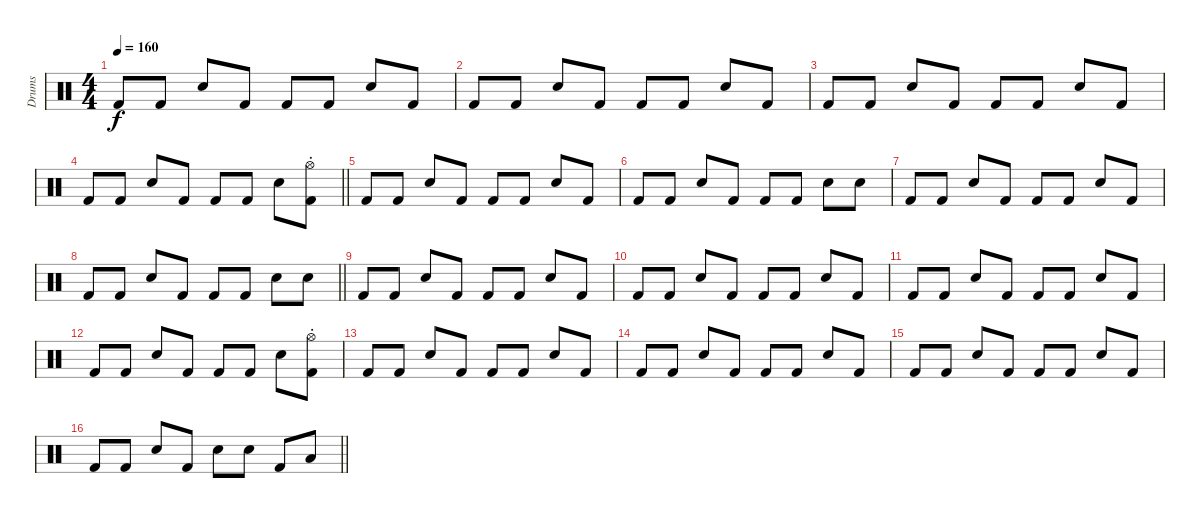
\track ("Drums" "Drums") {instrument percussion}
\staff {score}
\articulation defaults
\ts (4 4)
\tempo 160
\clef neutral
\ks c "Kick (hit) 2".8{dy f} "Kick (hit) 2".8 "Snare (hit) 2".8 "Kick (hit) 2".8 "Kick (hit) 2".8 "Kick (hit) 2".8 "Snare (hit) 2".8 "Kick (hit) 2".8
|
"Kick (hit) 2".8 "Kick (hit) 2".8 "Snare (hit) 2".8 "Kick (hit) 2".8 "Kick (hit) 2".8 "Kick (hit) 2".8 "Snare (hit) 2".8 "Kick (hit) 2".8 |
"Kick (hit) 2".8 "Kick (hit) 2".8 "Snare (hit) 2".8 "Kick (hit) 2".8 "Kick (hit) 2".8 "Kick (hit) 2".8 "Snare (hit) 2".8 "Kick (hit) 2".8 |
\barLineRight lightlight "Kick (hit) 2".8 "Kick (hit) 2".8 "Snare (hit) 2".8 "Kick (hit) 2".8 "Kick (hit) 2".8 "Kick (hit) 2".8 "Snare (hit) 2".8
("Hi-Hat (open)"{st} "Kick (hit) 2").8 |
"Kick (hit) 2".8 "Kick (hit) 2".8 "Snare (hit) 2".8 "Kick (hit) 2".8 "Kick (hit) 2".8 "Kick (hit) 2".8 "Snare (hit) 2".8 "Kick (hit) 2".8 |
"Kick (hit) 2".8 "Kick (hit) 2".8 "Snare (hit) 2".8 "Kick (hit) 2".8 "Kick (hit) 2".8 "Kick (hit) 2".8 "Snare (hit) 2".8 "Snare (hit) 2".8 |
"Kick (hit) 2".8 "Kick (hit) 2".8 "Snare (hit) 2".8 "Kick (hit) 2".8 "Kick (hit) 2".8 "Kick (hit) 2".8 "Snare (hit) 2".8 "Kick (hit) 2".8 |
\barLineRight lightlight "Kick (hit) 2".8 "Kick (hit) 2".8 "Snare (hit) 2".8 "Kick (hit) 2".8 "Kick (hit) 2".8 "Kick (hit) 2".8 "Snare (hit) 2".8 "Snare (hit) 2".8
|
"Kick (hit) 2".8 "Kick (hit) 2".8 "Snare (hit) 2".8 "Kick (hit) 2".8 "Kick (hit) 2".8 "Kick (hit) 2".8 "Snare (hit) 2".8 "Kick (hit) 2".8 |
"Kick (hit) 2".8 "Kick (hit) 2".8 "Snare (hit) 2".8 "Kick (hit) 2".8 "Kick (hit) 2".8 "Kick (hit) 2".8 "Snare (hit) 2".8 "Kick (hit) 2".8 |
"Kick (hit) 2".8 "Kick (hit) 2".8 "Snare (hit) 2".8 "Kick (hit) 2".8 "Kick (hit) 2".8 "Kick (hit) 2".8 "Snare (hit) 2".8 "Kick (hit) 2".8 |
"Kick (hit) 2".8 "Kick (hit) 2".8 "Snare (hit) 2".8 "Kick (hit) 2".8 "Kick (hit) 2".8 "Kick (hit) 2".8 "Snare (hit) 2".8 ("Hi-Hat (open)"{st} "Kick (hit) 2").8 |
"Kick (hit) 2".8 "Kick (hit) 2".8 "Snare (hit) 2".8 "Kick (hit) 2".8 "Kick (hit) 2".8 "Kick (hit) 2".8 "Snare (hit) 2".8 "Kick (hit) 2".8 |
"Kick (hit) 2".8 "Kick (hit) 2".8 "Snare (hit) 2".8 "Kick (hit) 2".8 "Kick (hit) 2".8 "Kick (hit) 2".8 "Snare (hit) 2".8 "Kick (hit) 2".8 |
"Kick (hit) 2".8 "Kick (hit) 2".8 "Snare (hit) 2".8 "Kick (hit) 2".8 "Kick (hit) 2".8 "Kick (hit) 2".8 "Snare (hit) 2".8 "Kick (hit) 2".8 |
\barLineRight lightlight "Kick (hit) 2".8 "Kick (hit) 2".8 "Snare (hit) 2".8 "Kick (hit) 2".8 "Snare (hit) 2".8 "Snare (hit) 2".8 "Kick (hit) 2".8 "Low Floor Tom (hit)".8
